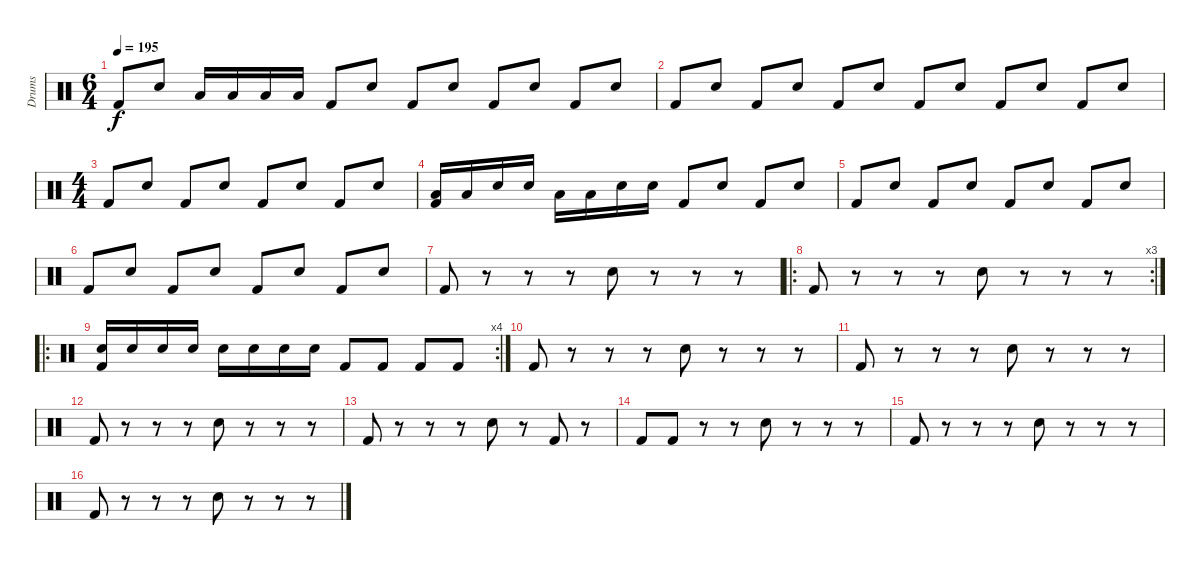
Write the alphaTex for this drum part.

\track ("Drums" "Drums") {instrument percussion}
\staff {score}
\articulation defaults
\ts (6 4)
\tempo 195
\clef neutral
\ks c "Kick (hit) 2".8{dy f} "Electric Snare (hit)".8 "Low Tom (hit)".16 "Low Tom (hit)".16 "Low Tom (hit)".16 "Low Tom (hit)".16 "Kick (hit) 2".8 "Electric Snare (hit)".8 "Kick (hit) 2".8 "Electric Snare (hit)".8 "Kick (hit) 2".8 "Electric Snare (hit)".8 "Kick (hit) 2".8 "Electric Snare (hit)".8
|
"Kick (hit) 2".8 "Electric Snare (hit)".8 "Kick (hit) 2".8 "Electric Snare (hit)".8 "Kick (hit) 2".8 "Electric Snare (hit)".8 "Kick (hit) 2".8 "Electric Snare (hit)".8 "Kick (hit) 2".8 "Electric Snare (hit)".8 "Kick (hit) 2".8 "Electric Snare (hit)".8 |
\ts (4 4)
"Kick (hit) 2".8 "Electric Snare (hit)".8 "Kick (hit) 2".8 "Electric Snare (hit)".8 "Kick (hit) 2".8 "Electric Snare (hit)".8 "Kick (hit) 2".8 "Electric Snare (hit)".8 |
("Low Tom (hit)" "Kick (hit) 2").16 "Low Tom (hit)".16 "Electric Snare (hit)".16 "Electric Snare (hit)".16 "Low Tom (hit)".16 "Low Tom (hit)".16 "Electric Snare (hit)".16 "Electric Snare (hit)".16 "Kick (hit) 2".8 "Electric Snare (hit)".8 "Kick (hit) 2".8 "Electric Snare (hit)".8 |
"Kick (hit) 2".8 "Electric Snare (hit)".8 "Kick (hit) 2".8 "Electric Snare (hit)".8 "Kick (hit) 2".8 "Electric Snare (hit)".8 "Kick (hit) 2".8 "Electric Snare (hit)".8 |
"Kick (hit) 2".8 "Electric Snare (hit)".8 "Kick (hit) 2".8 "Electric Snare (hit)".8 "Kick (hit) 2".8 "Electric Snare (hit)".8 "Kick (hit) 2".8 "Electric Snare (hit)".8 |
"Kick (hit) 2".8 r.8 r.8 r.8 "Electric Snare (hit)".8 r.8 r.8 r.8 |
\ro
\rc 3 "Kick (hit) 2".8
r.8 r.8 r.8 "Electric Snare (hit)".8 r.8 r.8 r.8 |
\ro
\rc 4
("Electric Snare (hit)" "Kick (hit) 2").16 "Electric Snare (hit)".16 "Electric Snare (hit)".16 "Electric Snare (hit)".16 "Electric Snare (hit)".16 "Electric Snare (hit)".16 "Electric Snare (hit)".16 "Electric Snare (hit)".16 "Kick (hit) 2".8 "Kick (hit) 2".8 "Kick (hit) 2".8 "Kick (hit) 2".8 |
"Kick (hit) 2".8 r.8 r.8 r.8 "Electric Snare (hit)".8 r.8 r.8 r.8 |
"Kick (hit) 2".8 r.8 r.8 r.8 "Electric Snare (hit)".8 r.8 r.8 r.8 |
"Kick (hit) 2".8 r.8 r.8 r.8 "Electric Snare (hit)".8 r.8 r.8 r.8 |
"Kick (hit) 2".8 r.8 r.8 r.8 "Electric Snare (hit)".8 r.8 "Kick (hit) 2".8 r.8 |
"Kick (hit) 2".8 "Kick (hit) 2".8 r.8 r.8 "Electric Snare (hit)".8 r.8 r.8 r.8 |
"Kick (hit) 2".8 r.8 r.8 r.8 "Electric Snare (hit)".8 r.8 r.8 r.8 |
"Kick (hit) 2".8 r.8 r.8 r.8 "Electric Snare (hit)".8 r.8 r.8 r.8
